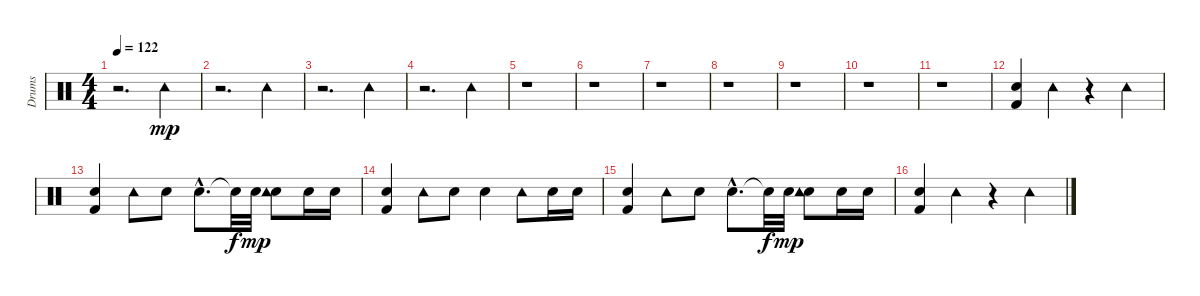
\track ("Drums" "Drums") {instrument percussion}
\staff {score}
\articulation defaults
\ts (4 4)
\tempo 122
\clef neutral
\ks c
r.2{d dy mp} "Tambourine (hit)".4 |
r.2{d} "Tambourine (hit)".4 |
r.2{d} "Tambourine (hit)".4 |
r.2{d} "Tambourine (hit)".4 |
r.1 |
r.1 |
r.1 |
r.1 |
r.1 |
r.1 |
r.1 |
("Kick (hit) 2" "Snare (hit) 2").4 "Tambourine (hit)".4 r.4 "Tambourine (hit)".4 |
("Kick (hit) 2" "Snare (hit) 2").4 "Tambourine (hit)".8 "Snare (hit) 2".8 "Snare (hit) 2"{hac}.8{d} "Snare (hit)"{t}.32{dy f} "Hand Clap (hit)".32{dy mp} ("Hand Clap (hit)" "Tambourine (hit)").8 "Snare (hit) 2".16 "Snare (hit) 2".16 |
("Kick (hit) 2" "Snare (hit) 2").4 "Tambourine (hit)".8 "Snare (hit) 2".8 "Snare (hit) 2".4 "Tambourine (hit)".8 "Snare (hit) 2".16 "Snare (hit) 2".16 |
("Kick (hit) 2" "Snare (hit) 2").4 "Tambourine (hit)".8 "Snare (hit) 2".8 "Snare (hit) 2"{hac}.8{d} "Snare (hit)"{t}.32{dy f} "Hand Clap (hit)".32{dy mp} ("Hand Clap (hit)" "Tambourine (hit)").8 "Snare (hit) 2".16 "Snare (hit) 2".16 |
("Kick (hit) 2" "Snare (hit) 2").4 "Tambourine (hit)".4 r.4 "Tambourine (hit)".4
